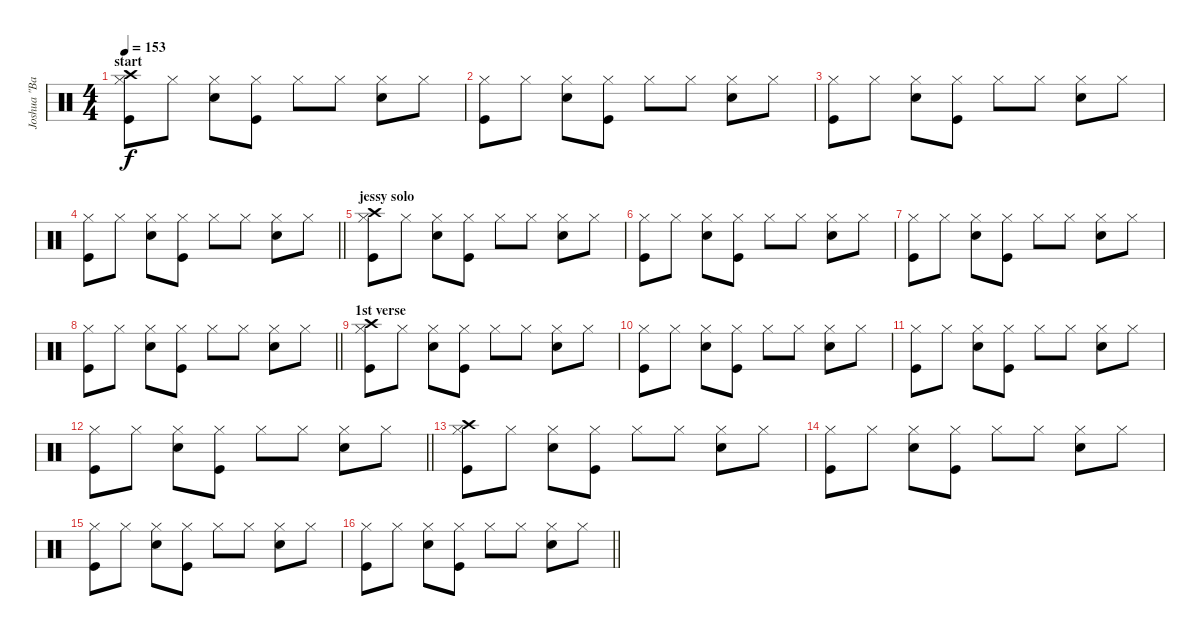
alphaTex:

\track ("Joshua \"Baby Duck\" Homme" "Joshua \"Ba") {instrument percussion}
\staff {score}
\articulation defaults
\ts (4 4)
\section ("" "start")
\tempo 153
\clef neutral
\ks c
("Kick (hit)" "Hi-Hat (closed)" "Crash high (hit)").8{dy f} "Hi-Hat (closed)".8 ("Electric Snare (hit)" "Hi-Hat (closed)").8 ("Kick (hit)" "Hi-Hat (closed)").8 "Hi-Hat (closed)".8 "Hi-Hat (closed)".8 ("Electric Snare (hit)" "Hi-Hat (closed)").8 "Hi-Hat (closed)".8 |
("Kick (hit)" "Hi-Hat (closed)").8 "Hi-Hat (closed)".8 ("Electric Snare (hit)" "Hi-Hat (closed)").8 ("Kick (hit)" "Hi-Hat (closed)").8 "Hi-Hat (closed)".8 "Hi-Hat (closed)".8 ("Electric Snare (hit)" "Hi-Hat (closed)").8 "Hi-Hat (closed)".8 |
("Kick (hit)" "Hi-Hat (closed)").8 "Hi-Hat (closed)".8 ("Electric Snare (hit)" "Hi-Hat (closed)").8 ("Kick (hit)" "Hi-Hat (closed)").8 "Hi-Hat (closed)".8 "Hi-Hat (closed)".8 ("Electric Snare (hit)" "Hi-Hat (closed)").8 "Hi-Hat (closed)".8 |
\barLineRight lightlight
("Kick (hit)" "Hi-Hat (closed)").8 "Hi-Hat (closed)".8 ("Electric Snare (hit)" "Hi-Hat (closed)").8 ("Kick (hit)" "Hi-Hat (closed)").8 "Hi-Hat (closed)".8 "Hi-Hat (closed)".8 ("Electric Snare (hit)" "Hi-Hat (closed)").8 "Hi-Hat (closed)".8 |
\section ("" "jessy solo")
("Kick (hit)" "Hi-Hat (closed)" "Crash high (hit)").8 "Hi-Hat (closed)".8 ("Electric Snare (hit)" "Hi-Hat (closed)").8 ("Kick (hit)" "Hi-Hat (closed)").8 "Hi-Hat (closed)".8 "Hi-Hat (closed)".8 ("Electric Snare (hit)" "Hi-Hat (closed)").8 "Hi-Hat (closed)".8 |
("Kick (hit)" "Hi-Hat (closed)").8 "Hi-Hat (closed)".8 ("Electric Snare (hit)" "Hi-Hat (closed)").8 ("Kick (hit)" "Hi-Hat (closed)").8 "Hi-Hat (closed)".8 "Hi-Hat (closed)".8 ("Electric Snare (hit)" "Hi-Hat (closed)").8 "Hi-Hat (closed)".8 |
("Kick (hit)" "Hi-Hat (closed)").8 "Hi-Hat (closed)".8 ("Electric Snare (hit)" "Hi-Hat (closed)").8 ("Kick (hit)" "Hi-Hat (closed)").8 "Hi-Hat (closed)".8 "Hi-Hat (closed)".8 ("Electric Snare (hit)" "Hi-Hat (closed)").8 "Hi-Hat (closed)".8 |
\barLineRight lightlight
("Kick (hit)" "Hi-Hat (closed)").8 "Hi-Hat (closed)".8 ("Electric Snare (hit)" "Hi-Hat (closed)").8 ("Kick (hit)" "Hi-Hat (closed)").8 "Hi-Hat (closed)".8 "Hi-Hat (closed)".8 ("Electric Snare (hit)" "Hi-Hat (closed)").8 "Hi-Hat (closed)".8 |
\section ("" "1st verse")
("Kick (hit)" "Hi-Hat (closed)" "Crash high (hit)").8 "Hi-Hat (closed)".8 ("Electric Snare (hit)" "Hi-Hat (closed)").8 ("Kick (hit)" "Hi-Hat (closed)").8 "Hi-Hat (closed)".8 "Hi-Hat (closed)".8 ("Electric Snare (hit)" "Hi-Hat (closed)").8 "Hi-Hat (closed)".8 |
("Kick (hit)" "Hi-Hat (closed)").8 "Hi-Hat (closed)".8 ("Electric Snare (hit)" "Hi-Hat (closed)").8 ("Kick (hit)" "Hi-Hat (closed)").8 "Hi-Hat (closed)".8 "Hi-Hat (closed)".8 ("Electric Snare (hit)" "Hi-Hat (closed)").8 "Hi-Hat (closed)".8 |
("Kick (hit)" "Hi-Hat (closed)").8 "Hi-Hat (closed)".8 ("Electric Snare (hit)" "Hi-Hat (closed)").8 ("Kick (hit)" "Hi-Hat (closed)").8 "Hi-Hat (closed)".8 "Hi-Hat (closed)".8 ("Electric Snare (hit)" "Hi-Hat (closed)").8 "Hi-Hat (closed)".8 |
\barLineRight lightlight
("Kick (hit)" "Hi-Hat (closed)").8 "Hi-Hat (closed)".8 ("Electric Snare (hit)" "Hi-Hat (closed)").8 ("Kick (hit)" "Hi-Hat (closed)").8 "Hi-Hat (closed)".8 "Hi-Hat (closed)".8 ("Electric Snare (hit)" "Hi-Hat (closed)").8 "Hi-Hat (closed)".8 |
\section ("" "")
("Kick (hit)" "Hi-Hat (closed)" "Crash high (hit)").8 "Hi-Hat (closed)".8 ("Electric Snare (hit)" "Hi-Hat (closed)").8 ("Kick (hit)" "Hi-Hat (closed)").8 "Hi-Hat (closed)".8 "Hi-Hat (closed)".8 ("Electric Snare (hit)" "Hi-Hat (closed)").8 "Hi-Hat (closed)".8 |
("Kick (hit)" "Hi-Hat (closed)").8 "Hi-Hat (closed)".8 ("Electric Snare (hit)" "Hi-Hat (closed)").8 ("Kick (hit)" "Hi-Hat (closed)").8 "Hi-Hat (closed)".8 "Hi-Hat (closed)".8 ("Electric Snare (hit)" "Hi-Hat (closed)").8 "Hi-Hat (closed)".8 |
("Kick (hit)" "Hi-Hat (closed)").8 "Hi-Hat (closed)".8 ("Electric Snare (hit)" "Hi-Hat (closed)").8 ("Kick (hit)" "Hi-Hat (closed)").8 "Hi-Hat (closed)".8 "Hi-Hat (closed)".8 ("Electric Snare (hit)" "Hi-Hat (closed)").8 "Hi-Hat (closed)".8 |
\barLineRight lightlight
("Kick (hit)" "Hi-Hat (closed)").8 "Hi-Hat (closed)".8 ("Electric Snare (hit)" "Hi-Hat (closed)").8 ("Kick (hit)" "Hi-Hat (closed)").8 "Hi-Hat (closed)".8 "Hi-Hat (closed)".8 ("Electric Snare (hit)" "Hi-Hat (closed)").8 "Hi-Hat (closed)".8
